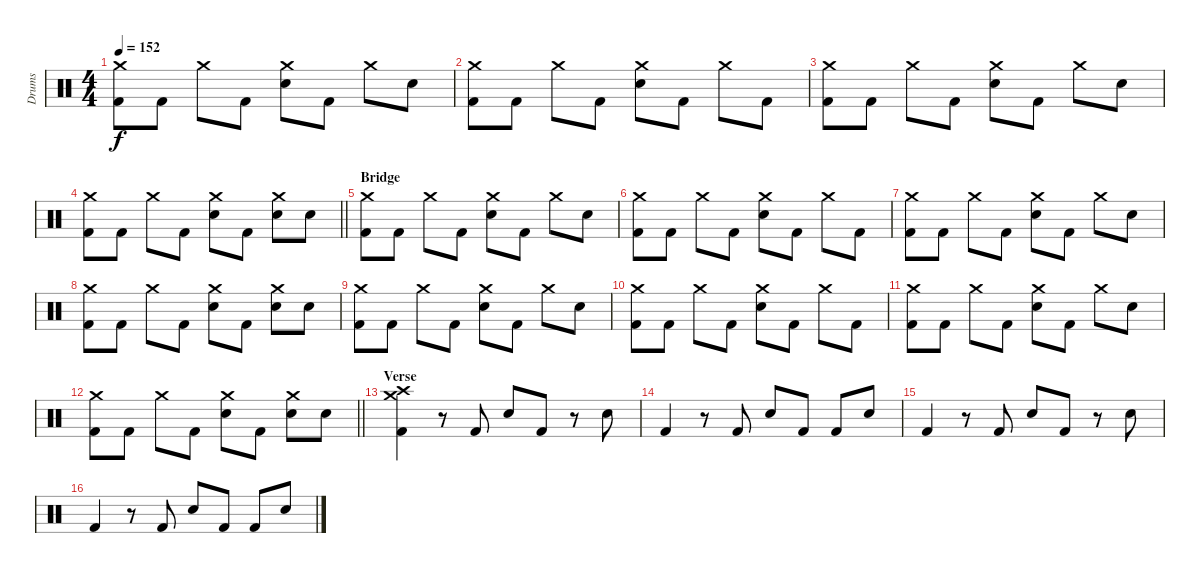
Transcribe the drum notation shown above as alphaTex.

\track ("Drums" "Drums") {instrument percussion}
\staff {score}
\articulation defaults
\ts (4 4)
\tempo 152
\clef neutral
\ks c
("Crash medium (hit)" "Kick (hit) 2").8{dy f} "Kick (hit) 2".8 "Crash medium (hit)".8 "Kick (hit) 2".8 ("Crash medium (hit)" "Electric Snare (hit)").8 "Kick (hit) 2".8 "Crash medium (hit)".8 "Electric Snare (hit)".8 |
("Crash medium (hit)" "Kick (hit) 2").8 "Kick (hit) 2".8 "Crash medium (hit)".8 "Kick (hit) 2".8 ("Crash medium (hit)" "Electric Snare (hit)").8 "Kick (hit) 2".8 "Crash medium (hit)".8 "Kick (hit) 2".8 |
("Crash medium (hit)" "Kick (hit) 2").8 "Kick (hit) 2".8 "Crash medium (hit)".8 "Kick (hit) 2".8 ("Crash medium (hit)" "Electric Snare (hit)").8 "Kick (hit) 2".8 "Crash medium (hit)".8 "Electric Snare (hit)".8 |
\barLineRight lightlight
("Crash medium (hit)" "Kick (hit) 2").8 "Kick (hit) 2".8 "Crash medium (hit)".8 "Kick (hit) 2".8 ("Crash medium (hit)" "Electric Snare (hit)").8 "Kick (hit) 2".8 ("Crash medium (hit)" "Electric Snare (hit)").8 "Electric Snare (hit)".8 |
\section ("" "Bridge")
("Crash medium (hit)" "Kick (hit) 2").8 "Kick (hit) 2".8 "Crash medium (hit)".8 "Kick (hit) 2".8 ("Crash medium (hit)" "Electric Snare (hit)").8 "Kick (hit) 2".8 "Crash medium (hit)".8 "Electric Snare (hit)".8 |
("Crash medium (hit)" "Kick (hit) 2").8 "Kick (hit) 2".8 "Crash medium (hit)".8 "Kick (hit) 2".8 ("Crash medium (hit)" "Electric Snare (hit)").8 "Kick (hit) 2".8 "Crash medium (hit)".8 "Kick (hit) 2".8 |
("Crash medium (hit)" "Kick (hit) 2").8 "Kick (hit) 2".8 "Crash medium (hit)".8 "Kick (hit) 2".8 ("Crash medium (hit)" "Electric Snare (hit)").8 "Kick (hit) 2".8 "Crash medium (hit)".8 "Electric Snare (hit)".8 |
("Crash medium (hit)" "Kick (hit) 2").8 "Kick (hit) 2".8 "Crash medium (hit)".8 "Kick (hit) 2".8 ("Crash medium (hit)" "Electric Snare (hit)").8 "Kick (hit) 2".8 ("Crash medium (hit)" "Electric Snare (hit)").8 "Electric Snare (hit)".8 |
("Crash medium (hit)" "Kick (hit) 2").8 "Kick (hit) 2".8 "Crash medium (hit)".8 "Kick (hit) 2".8 ("Crash medium (hit)" "Electric Snare (hit)").8 "Kick (hit) 2".8 "Crash medium (hit)".8 "Electric Snare (hit)".8 |
("Crash medium (hit)" "Kick (hit) 2").8 "Kick (hit) 2".8 "Crash medium (hit)".8 "Kick (hit) 2".8 ("Crash medium (hit)" "Electric Snare (hit)").8 "Kick (hit) 2".8 "Crash medium (hit)".8 "Kick (hit) 2".8 |
("Crash medium (hit)" "Kick (hit) 2").8 "Kick (hit) 2".8 "Crash medium (hit)".8 "Kick (hit) 2".8 ("Crash medium (hit)" "Electric Snare (hit)").8 "Kick (hit) 2".8 "Crash medium (hit)".8 "Electric Snare (hit)".8 |
\barLineRight lightlight
("Crash medium (hit)" "Kick (hit) 2").8 "Kick (hit) 2".8 "Crash medium (hit)".8 "Kick (hit) 2".8 ("Crash medium (hit)" "Electric Snare (hit)").8 "Kick (hit) 2".8 ("Crash medium (hit)" "Electric Snare (hit)").8 "Electric Snare (hit)".8 |
\section ("" "Verse")
("Crash medium (hit)" "Crash high (hit)" "Kick (hit) 2").4 r.8 "Kick (hit) 2".8 "Electric Snare (hit)".8 "Kick (hit) 2".8 r.8 "Electric Snare (hit)".8 |
"Kick (hit) 2".4 r.8 "Kick (hit) 2".8 "Electric Snare (hit)".8 "Kick (hit) 2".8 "Kick (hit) 2".8 "Electric Snare (hit)".8 |
"Kick (hit) 2".4 r.8 "Kick (hit) 2".8 "Electric Snare (hit)".8 "Kick (hit) 2".8 r.8 "Electric Snare (hit)".8 |
"Kick (hit) 2".4 r.8 "Kick (hit) 2".8 "Electric Snare (hit)".8 "Kick (hit) 2".8 "Kick (hit) 2".8 "Electric Snare (hit)".8
